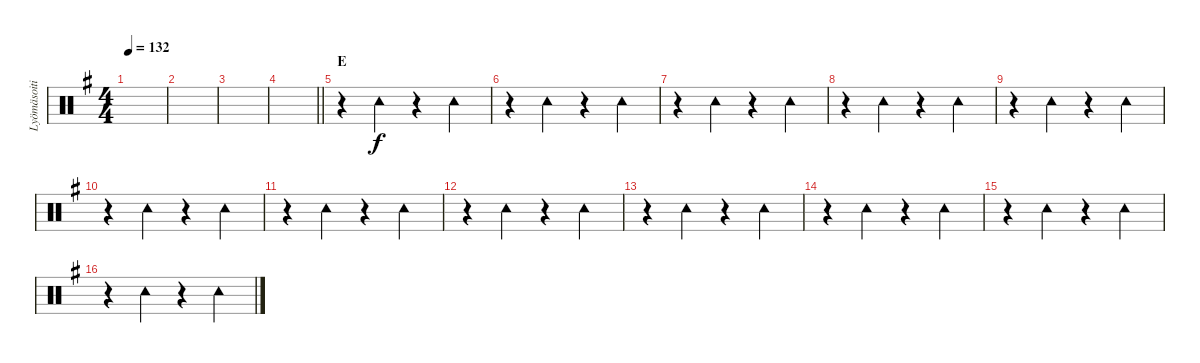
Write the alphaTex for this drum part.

\track ("Lyömäsoitin" "Lyömäsoiti") {instrument percussion}
\staff {score}
\articulation defaults
\ts (4 4)
\tempo 132
\clef neutral
\ks eminor
|
|
|
\barLineRight lightlight
|
\section ("" "E")
r.4 "Tambourine (hit)".4 r.4 "Tambourine (hit)".4 |
r.4 "Tambourine (hit)".4 r.4 "Tambourine (hit)".4 |
r.4 "Tambourine (hit)".4 r.4 "Tambourine (hit)".4 |
r.4 "Tambourine (hit)".4 r.4 "Tambourine (hit)".4 |
r.4 "Tambourine (hit)".4 r.4 "Tambourine (hit)".4 |
r.4 "Tambourine (hit)".4 r.4 "Tambourine (hit)".4 |
r.4 "Tambourine (hit)".4 r.4 "Tambourine (hit)".4 |
r.4 "Tambourine (hit)".4 r.4 "Tambourine (hit)".4 |
r.4 "Tambourine (hit)".4 r.4 "Tambourine (hit)".4 |
r.4 "Tambourine (hit)".4 r.4 "Tambourine (hit)".4 |
r.4 "Tambourine (hit)".4 r.4 "Tambourine (hit)".4 |
r.4 "Tambourine (hit)".4 r.4 "Tambourine (hit)".4
